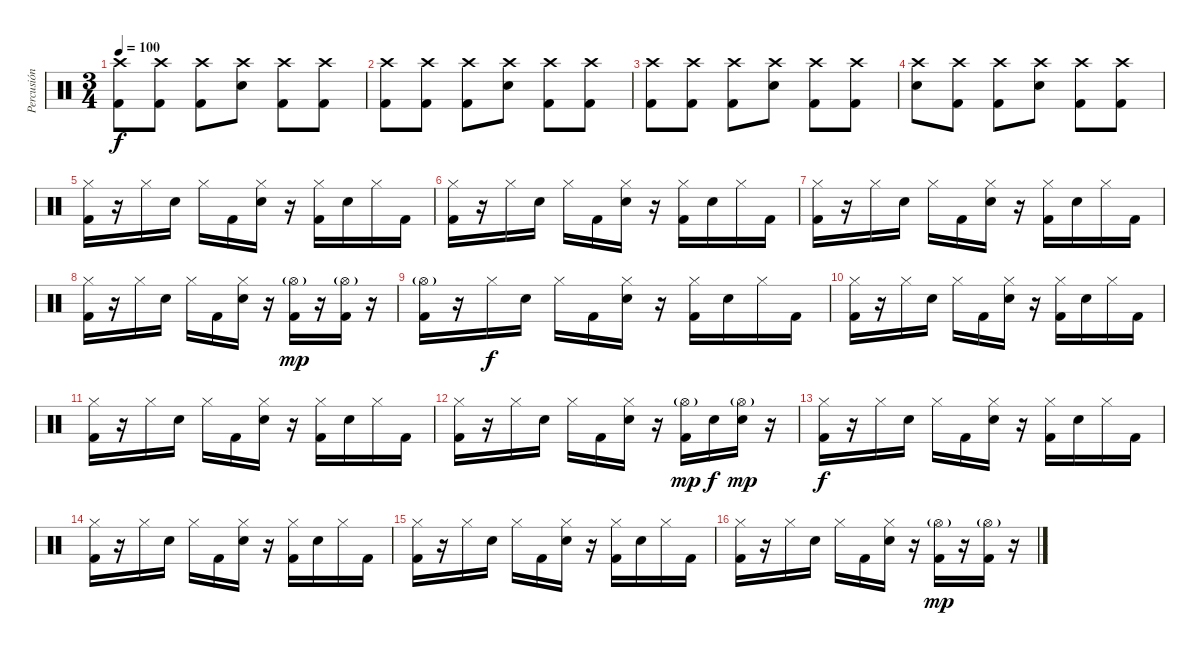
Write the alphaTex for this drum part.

\track ("Percusión" "Percusión") {instrument percussion}
\staff {score}
\articulation defaults
\ts (3 4)
\tempo 100
\clef neutral
\ks c
("Crash high (hit)" "Kick (hit) 2").8{dy f} ("Crash high (hit)" "Kick (hit) 2").8 ("Crash high (hit)" "Kick (hit) 2").8 ("Crash high (hit)" "Snare (hit) 2").8 ("Crash high (hit)" "Kick (hit) 2").8 ("Crash high (hit)" "Kick (hit) 2").8 |
("Crash high (hit)" "Kick (hit) 2").8 ("Crash high (hit)" "Kick (hit) 2").8 ("Crash high (hit)" "Kick (hit) 2").8 ("Crash high (hit)" "Snare (hit) 2").8 ("Crash high (hit)" "Kick (hit) 2").8 ("Crash high (hit)" "Kick (hit) 2").8 |
("Crash high (hit)" "Kick (hit) 2").8 ("Crash high (hit)" "Kick (hit) 2").8 ("Crash high (hit)" "Kick (hit) 2").8 ("Crash high (hit)" "Snare (hit) 2").8 ("Crash high (hit)" "Kick (hit) 2").8 ("Crash high (hit)" "Kick (hit) 2").8 |
("Crash high (hit)" "Snare (hit) 2").8 ("Crash high (hit)" "Kick (hit) 2").8 ("Crash high (hit)" "Kick (hit) 2").8 ("Crash high (hit)" "Snare (hit) 2").8 ("Crash high (hit)" "Kick (hit) 2").8 ("Crash high (hit)" "Kick (hit) 2").8 |
("Hi-Hat (closed)" "Kick (hit) 2").16 r.16 "Hi-Hat (closed)".16 "Snare (hit) 2".16 "Hi-Hat (closed)".16 "Kick (hit) 2".16 ("Hi-Hat (closed)" "Snare (hit) 2").16 r.16 ("Hi-Hat (closed)" "Kick (hit) 2").16 "Snare (hit) 2".16 "Hi-Hat (closed)".16 "Kick (hit) 2".16 |
("Hi-Hat (closed)" "Kick (hit) 2").16 r.16 "Hi-Hat (closed)".16 "Snare (hit) 2".16 "Hi-Hat (closed)".16 "Kick (hit) 2".16 ("Hi-Hat (closed)" "Snare (hit) 2").16 r.16 ("Hi-Hat (closed)" "Kick (hit) 2").16 "Snare (hit) 2".16 "Hi-Hat (closed)".16 "Kick (hit) 2".16 |
("Hi-Hat (closed)" "Kick (hit) 2").16 r.16 "Hi-Hat (closed)".16 "Snare (hit) 2".16 "Hi-Hat (closed)".16 "Kick (hit) 2".16 ("Hi-Hat (closed)" "Snare (hit) 2").16 r.16 ("Hi-Hat (closed)" "Kick (hit) 2").16 "Snare (hit) 2".16 "Hi-Hat (closed)".16 "Kick (hit) 2".16 |
("Hi-Hat (closed)" "Kick (hit) 2").16 r.16 "Hi-Hat (closed)".16 "Snare (hit) 2".16 "Hi-Hat (closed)".16 "Kick (hit) 2".16 ("Hi-Hat (closed)" "Snare (hit) 2").16 r.16 ("Hi-Hat (open)"{g} "Kick (hit) 2").16{dy mp} r.16 ("Hi-Hat (open)"{g} "Kick (hit) 2").16 r.16 |
("Hi-Hat (open)"{g} "Kick (hit) 2").16 r.16 "Hi-Hat (closed)".16{dy f} "Snare (hit) 2".16 "Hi-Hat (closed)".16 "Kick (hit) 2".16 ("Hi-Hat (closed)" "Snare (hit) 2").16 r.16 ("Hi-Hat (closed)" "Kick (hit) 2").16 "Snare (hit) 2".16 "Hi-Hat (closed)".16 "Kick (hit) 2".16 |
("Hi-Hat (closed)" "Kick (hit) 2").16 r.16 "Hi-Hat (closed)".16 "Snare (hit) 2".16 "Hi-Hat (closed)".16 "Kick (hit) 2".16 ("Hi-Hat (closed)" "Snare (hit) 2").16 r.16 ("Hi-Hat (closed)" "Kick (hit) 2").16 "Snare (hit) 2".16 "Hi-Hat (closed)".16 "Kick (hit) 2".16 |
("Hi-Hat (closed)" "Kick (hit) 2").16 r.16 "Hi-Hat (closed)".16 "Snare (hit) 2".16 "Hi-Hat (closed)".16 "Kick (hit) 2".16 ("Hi-Hat (closed)" "Snare (hit) 2").16 r.16 ("Hi-Hat (closed)" "Kick (hit) 2").16 "Snare (hit) 2".16 "Hi-Hat (closed)".16 "Kick (hit) 2".16 |
("Hi-Hat (closed)" "Kick (hit) 2").16 r.16 "Hi-Hat (closed)".16 "Snare (hit) 2".16 "Hi-Hat (closed)".16 "Kick (hit) 2".16 ("Hi-Hat (closed)" "Snare (hit) 2").16 r.16 ("Hi-Hat (open)"{g} "Kick (hit) 2").16{dy mp} "Snare (hit) 2".16{dy f} ("Hi-Hat (open)"{g} "Snare (hit) 2").16{dy mp} r.16 |
("Hi-Hat (closed)" "Kick (hit) 2").16{dy f} r.16 "Hi-Hat (closed)".16 "Snare (hit) 2".16 "Hi-Hat (closed)".16 "Kick (hit) 2".16 ("Hi-Hat (closed)" "Snare (hit) 2").16 r.16 ("Hi-Hat (closed)" "Kick (hit) 2").16 "Snare (hit) 2".16 "Hi-Hat (closed)".16 "Kick (hit) 2".16 |
("Hi-Hat (closed)" "Kick (hit) 2").16 r.16 "Hi-Hat (closed)".16 "Snare (hit) 2".16 "Hi-Hat (closed)".16 "Kick (hit) 2".16 ("Hi-Hat (closed)" "Snare (hit) 2").16 r.16 ("Hi-Hat (closed)" "Kick (hit) 2").16 "Snare (hit) 2".16 "Hi-Hat (closed)".16 "Kick (hit) 2".16 |
("Hi-Hat (closed)" "Kick (hit) 2").16 r.16 "Hi-Hat (closed)".16 "Snare (hit) 2".16 "Hi-Hat (closed)".16 "Kick (hit) 2".16 ("Hi-Hat (closed)" "Snare (hit) 2").16 r.16 ("Hi-Hat (closed)" "Kick (hit) 2").16 "Snare (hit) 2".16 "Hi-Hat (closed)".16 "Kick (hit) 2".16 |
("Hi-Hat (closed)" "Kick (hit) 2").16 r.16 "Hi-Hat (closed)".16 "Snare (hit) 2".16 "Hi-Hat (closed)".16 "Kick (hit) 2".16 ("Hi-Hat (closed)" "Snare (hit) 2").16 r.16 ("Hi-Hat (open)"{g} "Kick (hit) 2").16{dy mp} r.16 ("Hi-Hat (open)"{g} "Kick (hit) 2").16 r.16
